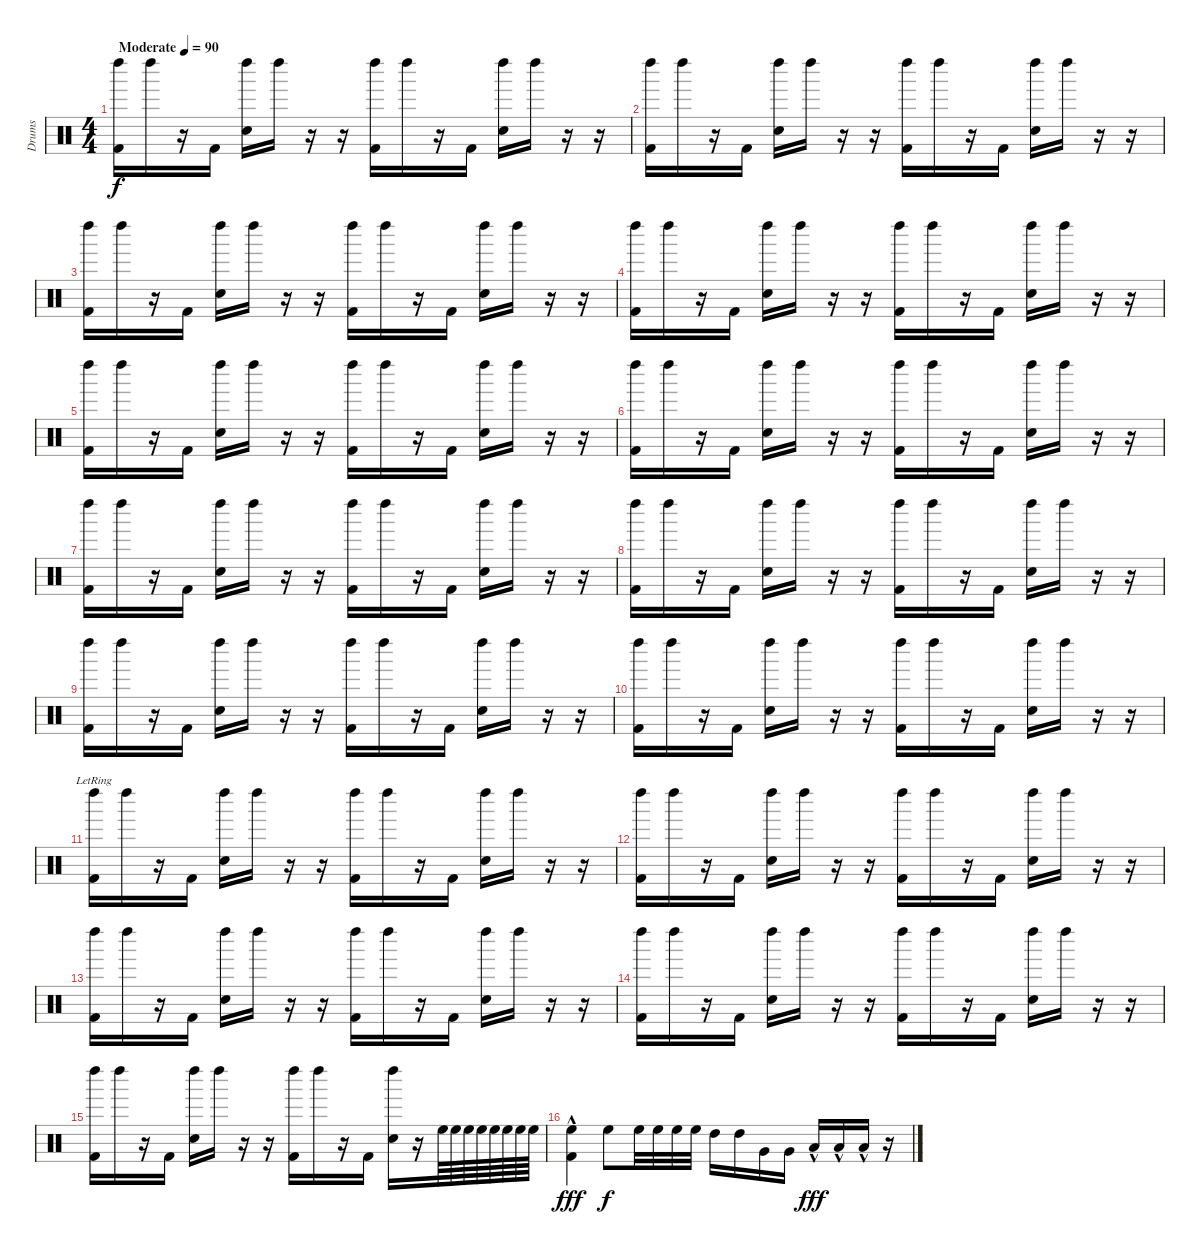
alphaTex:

\track ("Drums" "Drums") {instrument percussion}
\staff {score}
\articulation defaults
\ts (4 4)
\tempo (90 "Moderate")
\clef neutral
\ks c
("Left Maraca (hit)" "Kick (hit) 2").16{dy f} "Left Maraca (hit)".16 r.16 "Kick (hit) 2".16 ("Left Maraca (hit)" "Hand Clap (hit)").16 "Left Maraca (hit)".16 r.16 r.16 ("Left Maraca (hit)" "Kick (hit) 2").16 "Left Maraca (hit)".16 r.16 "Kick (hit) 2".16 ("Left Maraca (hit)" "Hand Clap (hit)").16 "Left Maraca (hit)".16 r.16 r.16 |
("Left Maraca (hit)" "Kick (hit) 2").16 "Left Maraca (hit)".16 r.16 "Kick (hit) 2".16 ("Left Maraca (hit)" "Hand Clap (hit)").16 "Left Maraca (hit)".16 r.16 r.16 ("Left Maraca (hit)" "Kick (hit) 2").16 "Left Maraca (hit)".16 r.16 "Kick (hit) 2".16 ("Left Maraca (hit)" "Hand Clap (hit)").16 "Left Maraca (hit)".16 r.16 r.16 |
("Left Maraca (hit)" "Kick (hit) 2").16 "Left Maraca (hit)".16 r.16 "Kick (hit) 2".16 ("Left Maraca (hit)" "Hand Clap (hit)").16 "Left Maraca (hit)".16 r.16 r.16 ("Left Maraca (hit)" "Kick (hit) 2").16 "Left Maraca (hit)".16 r.16 "Kick (hit) 2".16 ("Left Maraca (hit)" "Hand Clap (hit)").16 "Left Maraca (hit)".16 r.16 r.16 |
("Left Maraca (hit)" "Kick (hit) 2").16 "Left Maraca (hit)".16 r.16 "Kick (hit) 2".16 ("Left Maraca (hit)" "Hand Clap (hit)").16 "Left Maraca (hit)".16 r.16 r.16 ("Left Maraca (hit)" "Kick (hit) 2").16 "Left Maraca (hit)".16 r.16 "Kick (hit) 2".16 ("Left Maraca (hit)" "Hand Clap (hit)").16 "Left Maraca (hit)".16 r.16 r.16 |
("Left Maraca (hit)" "Kick (hit) 2").16 "Left Maraca (hit)".16 r.16 "Kick (hit) 2".16 ("Left Maraca (hit)" "Hand Clap (hit)").16 "Left Maraca (hit)".16 r.16 r.16 ("Left Maraca (hit)" "Kick (hit) 2").16 "Left Maraca (hit)".16 r.16 "Kick (hit) 2".16 ("Left Maraca (hit)" "Hand Clap (hit)").16 "Left Maraca (hit)".16 r.16 r.16 |
("Left Maraca (hit)" "Kick (hit) 2").16 "Left Maraca (hit)".16 r.16 "Kick (hit) 2".16 ("Left Maraca (hit)" "Hand Clap (hit)").16 "Left Maraca (hit)".16 r.16 r.16 ("Left Maraca (hit)" "Kick (hit) 2").16 "Left Maraca (hit)".16 r.16 "Kick (hit) 2".16 ("Left Maraca (hit)" "Hand Clap (hit)").16 "Left Maraca (hit)".16 r.16 r.16 |
("Left Maraca (hit)" "Kick (hit) 2").16 "Left Maraca (hit)".16 r.16 "Kick (hit) 2".16 ("Left Maraca (hit)" "Hand Clap (hit)").16 "Left Maraca (hit)".16 r.16 r.16 ("Left Maraca (hit)" "Kick (hit) 2").16 "Left Maraca (hit)".16 r.16 "Kick (hit) 2".16 ("Left Maraca (hit)" "Hand Clap (hit)").16 "Left Maraca (hit)".16 r.16 r.16 |
("Left Maraca (hit)" "Kick (hit) 2").16 "Left Maraca (hit)".16 r.16 "Kick (hit) 2".16 ("Left Maraca (hit)" "Hand Clap (hit)").16 "Left Maraca (hit)".16 r.16 r.16 ("Left Maraca (hit)" "Kick (hit) 2").16 "Left Maraca (hit)".16 r.16 "Kick (hit) 2".16 ("Left Maraca (hit)" "Hand Clap (hit)").16 "Left Maraca (hit)".16 r.16 r.16 |
("Left Maraca (hit)" "Kick (hit) 2").16 "Left Maraca (hit)".16 r.16 "Kick (hit) 2".16 ("Left Maraca (hit)" "Hand Clap (hit)").16 "Left Maraca (hit)".16 r.16 r.16 ("Left Maraca (hit)" "Kick (hit) 2").16 "Left Maraca (hit)".16 r.16 "Kick (hit) 2".16 ("Left Maraca (hit)" "Hand Clap (hit)").16 "Left Maraca (hit)".16 r.16 r.16 |
("Left Maraca (hit)" "Kick (hit) 2").16 "Left Maraca (hit)".16 r.16 "Kick (hit) 2".16 ("Left Maraca (hit)" "Hand Clap (hit)").16 "Left Maraca (hit)".16 r.16 r.16 ("Left Maraca (hit)" "Kick (hit) 2").16 "Left Maraca (hit)".16 r.16 "Kick (hit) 2".16 ("Left Maraca (hit)" "Hand Clap (hit)").16 "Left Maraca (hit)".16 r.16 r.16 |
("Left Maraca (hit)"{lr} "Kick (hit) 2").16 "Left Maraca (hit)".16 r.16 "Kick (hit) 2".16 ("Left Maraca (hit)" "Hand Clap (hit)").16 "Left Maraca (hit)".16 r.16 r.16 ("Left Maraca (hit)" "Kick (hit) 2").16 "Left Maraca (hit)".16 r.16 "Kick (hit) 2".16 ("Left Maraca (hit)" "Hand Clap (hit)").16 "Left Maraca (hit)".16 r.16 r.16 |
("Left Maraca (hit)" "Kick (hit) 2").16 "Left Maraca (hit)".16 r.16 "Kick (hit) 2".16 ("Left Maraca (hit)" "Hand Clap (hit)").16 "Left Maraca (hit)".16 r.16 r.16 ("Left Maraca (hit)" "Kick (hit) 2").16 "Left Maraca (hit)".16 r.16 "Kick (hit) 2".16 ("Left Maraca (hit)" "Hand Clap (hit)").16 "Left Maraca (hit)".16 r.16 r.16 |
("Left Maraca (hit)" "Kick (hit) 2").16 "Left Maraca (hit)".16 r.16 "Kick (hit) 2".16 ("Left Maraca (hit)" "Hand Clap (hit)").16 "Left Maraca (hit)".16 r.16 r.16 ("Left Maraca (hit)" "Kick (hit) 2").16 "Left Maraca (hit)".16 r.16 "Kick (hit) 2".16 ("Left Maraca (hit)" "Hand Clap (hit)").16 "Left Maraca (hit)".16 r.16 r.16 |
("Left Maraca (hit)" "Kick (hit) 2").16 "Left Maraca (hit)".16 r.16 "Kick (hit) 2".16 ("Left Maraca (hit)" "Hand Clap (hit)").16 "Left Maraca (hit)".16 r.16 r.16 ("Left Maraca (hit)" "Kick (hit) 2").16 "Left Maraca (hit)".16 r.16 "Kick (hit) 2".16 ("Left Maraca (hit)" "Hand Clap (hit)").16 "Left Maraca (hit)".16 r.16 r.16 |
("Left Maraca (hit)" "Kick (hit) 2").16 "Left Maraca (hit)".16 r.16 "Kick (hit) 2".16 ("Left Maraca (hit)" "Hand Clap (hit)").16 "Left Maraca (hit)".16 r.16 r.16 ("Left Maraca (hit)" "Kick (hit) 2").16 "Left Maraca (hit)".16 r.16 "Kick (hit) 2".16 ("Left Maraca (hit)" "Hand Clap (hit)").16 r.16 "High Floor Tom (hit)".64 "High Floor Tom (hit)".64 "High Floor Tom (hit)".64 "High Floor Tom (hit)".64 "High Floor Tom (hit)".64 "High Floor Tom (hit)".64 "High Floor Tom (hit)".64 "High Floor Tom (hit)".64 |
("High Floor Tom (hit)"{hac} "Kick (hit) 2").4{dy fff} "High Floor Tom (hit)".8{dy f} "High Floor Tom (hit)".32 "High Floor Tom (hit)".32 "High Floor Tom (hit)".32 "High Floor Tom (hit)".32 "High Tom (hit)".16 "High Tom (hit)".16 "Very Low Tom (hit)".16 "Very Low Tom (hit)".16 "Low Floor Tom (hit)"{hac}.16{dy fff} "Low Floor Tom (hit)"{hac}.16 "Low Floor Tom (hit)"{hac}.16 r.16
